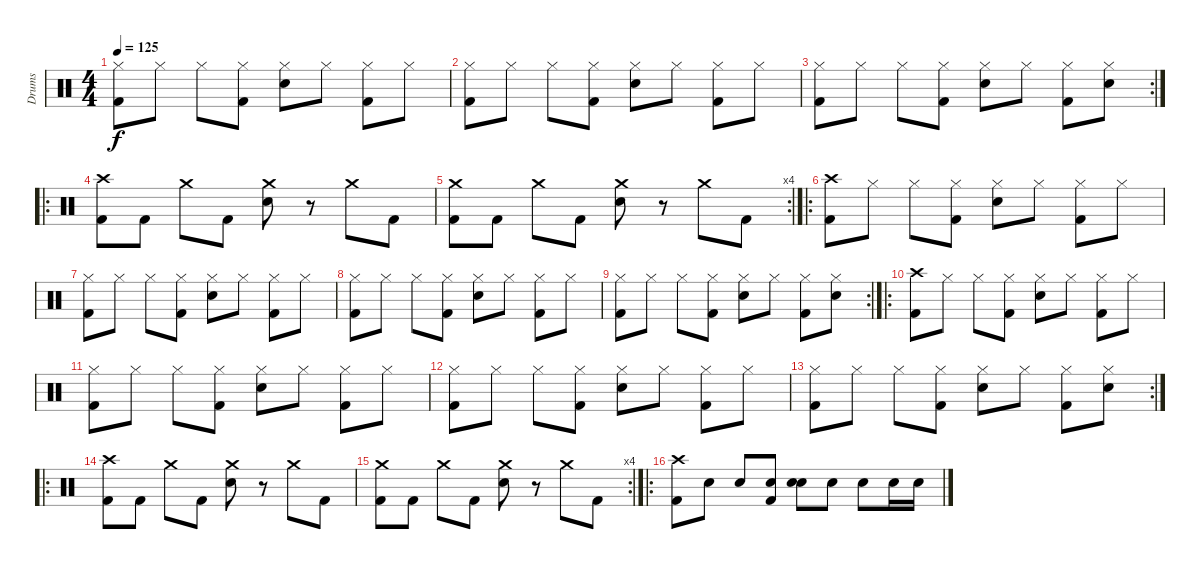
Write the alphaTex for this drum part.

\track ("Drums" "Drums") {instrument percussion}
\staff {score}
\articulation defaults
\ts (4 4)
\tempo 125
\clef neutral
\ks c
("Hi-Hat (closed)" "Kick (hit) 2").8{dy f} "Hi-Hat (closed)".8 "Hi-Hat (closed)".8 ("Hi-Hat (closed)" "Kick (hit) 2").8 ("Hi-Hat (closed)" "Snare (hit) 2").8 "Hi-Hat (closed)".8 ("Hi-Hat (closed)" "Kick (hit) 2").8 "Hi-Hat (closed)".8 |
("Hi-Hat (closed)" "Kick (hit) 2").8 "Hi-Hat (closed)".8 "Hi-Hat (closed)".8 ("Hi-Hat (closed)" "Kick (hit) 2").8 ("Hi-Hat (closed)" "Snare (hit) 2").8 "Hi-Hat (closed)".8 ("Hi-Hat (closed)" "Kick (hit) 2").8 "Hi-Hat (closed)".8 |
\rc 2
("Hi-Hat (closed)" "Kick (hit) 2").8 "Hi-Hat (closed)".8 "Hi-Hat (closed)".8 ("Hi-Hat (closed)" "Kick (hit) 2").8 ("Hi-Hat (closed)" "Snare (hit) 2").8 "Hi-Hat (closed)".8 ("Hi-Hat (closed)" "Kick (hit) 2").8 ("Hi-Hat (closed)" "Snare (hit) 2").8 |
\ro
("Crash high (hit)" "Kick (hit) 2").8 "Kick (hit) 2".8 "Crash medium (hit)".8 "Kick (hit) 2".8 ("Crash medium (hit)" "Snare (hit) 2").8 r.8 "Crash medium (hit)".8 "Kick (hit) 2".8 |
\rc 4
("Crash medium (hit)" "Kick (hit) 2").8 "Kick (hit) 2".8 "Crash medium (hit)".8 "Kick (hit) 2".8 ("Crash medium (hit)" "Snare (hit) 2").8 r.8 "Crash medium (hit)".8 "Kick (hit) 2".8 |
\ro
("Crash high (hit)" "Kick (hit) 2").8 "Hi-Hat (closed)".8 "Hi-Hat (closed)".8 ("Hi-Hat (closed)" "Kick (hit) 2").8 ("Hi-Hat (closed)" "Snare (hit) 2").8 "Hi-Hat (closed)".8 ("Hi-Hat (closed)" "Kick (hit) 2").8 "Hi-Hat (closed)".8 |
("Hi-Hat (closed)" "Kick (hit) 2").8 "Hi-Hat (closed)".8 "Hi-Hat (closed)".8 ("Hi-Hat (closed)" "Kick (hit) 2").8 ("Hi-Hat (closed)" "Snare (hit) 2").8 "Hi-Hat (closed)".8 ("Hi-Hat (closed)" "Kick (hit) 2").8 "Hi-Hat (closed)".8 |
("Hi-Hat (closed)" "Kick (hit) 2").8 "Hi-Hat (closed)".8 "Hi-Hat (closed)".8 ("Hi-Hat (closed)" "Kick (hit) 2").8 ("Hi-Hat (closed)" "Snare (hit) 2").8 "Hi-Hat (closed)".8 ("Hi-Hat (closed)" "Kick (hit) 2").8 "Hi-Hat (closed)".8 |
\rc 2
("Hi-Hat (closed)" "Kick (hit) 2").8 "Hi-Hat (closed)".8 "Hi-Hat (closed)".8 ("Hi-Hat (closed)" "Kick (hit) 2").8 ("Hi-Hat (closed)" "Snare (hit) 2").8 "Hi-Hat (closed)".8 ("Hi-Hat (closed)" "Kick (hit) 2").8 ("Hi-Hat (closed)" "Snare (hit) 2").8 |
\ro
("Crash high (hit)" "Kick (hit) 2").8 "Hi-Hat (closed)".8 "Hi-Hat (closed)".8 ("Hi-Hat (closed)" "Kick (hit) 2").8 ("Hi-Hat (closed)" "Snare (hit) 2").8 "Hi-Hat (closed)".8 ("Hi-Hat (closed)" "Kick (hit) 2").8 "Hi-Hat (closed)".8 |
("Hi-Hat (closed)" "Kick (hit) 2").8 "Hi-Hat (closed)".8 "Hi-Hat (closed)".8 ("Hi-Hat (closed)" "Kick (hit) 2").8 ("Hi-Hat (closed)" "Snare (hit) 2").8 "Hi-Hat (closed)".8 ("Hi-Hat (closed)" "Kick (hit) 2").8 "Hi-Hat (closed)".8 |
("Hi-Hat (closed)" "Kick (hit) 2").8 "Hi-Hat (closed)".8 "Hi-Hat (closed)".8 ("Hi-Hat (closed)" "Kick (hit) 2").8 ("Hi-Hat (closed)" "Snare (hit) 2").8 "Hi-Hat (closed)".8 ("Hi-Hat (closed)" "Kick (hit) 2").8 "Hi-Hat (closed)".8 |
\rc 2
("Hi-Hat (closed)" "Kick (hit) 2").8 "Hi-Hat (closed)".8 "Hi-Hat (closed)".8 ("Hi-Hat (closed)" "Kick (hit) 2").8 ("Hi-Hat (closed)" "Snare (hit) 2").8 "Hi-Hat (closed)".8 ("Hi-Hat (closed)" "Kick (hit) 2").8 ("Hi-Hat (closed)" "Snare (hit) 2").8 |
\ro
("Crash high (hit)" "Kick (hit) 2").8 "Kick (hit) 2".8 "Crash medium (hit)".8 "Kick (hit) 2".8 ("Crash medium (hit)" "Snare (hit) 2").8 r.8 "Crash medium (hit)".8 "Kick (hit) 2".8 |
\rc 4
("Crash medium (hit)" "Kick (hit) 2").8 "Kick (hit) 2".8 "Crash medium (hit)".8 "Kick (hit) 2".8 ("Crash medium (hit)" "Snare (hit) 2").8 r.8 "Crash medium (hit)".8 "Kick (hit) 2".8 |
\ro
("Crash high (hit)" "Kick (hit) 2").8 "Snare (hit) 2".8 "Snare (hit) 2".8 ("Snare (hit) 2" "Kick (hit) 2").8 ("Snare (hit) 2" "Snare (hit) 2").8 "Snare (hit) 2".8 "Snare (hit) 2".8 "Snare (hit) 2".16 "Snare (hit) 2".16
